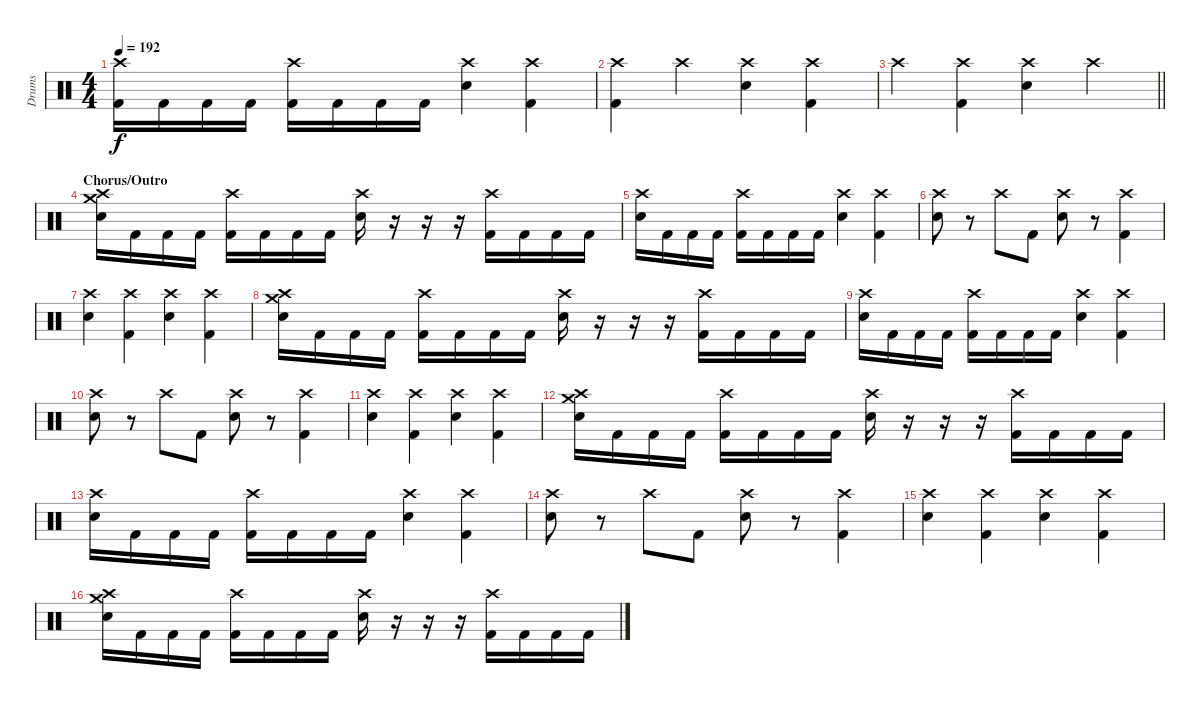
\track ("Drums" "Drums") {instrument percussion}
\staff {score}
\articulation defaults
\ts (4 4)
\tempo 192
\clef neutral
\ks c
("Crash high (hit)" "Kick (hit) 2").16{dy f} "Kick (hit) 2".16 "Kick (hit) 2".16 "Kick (hit) 2".16 ("Crash high (hit)" "Kick (hit) 2").16 "Kick (hit) 2".16 "Kick (hit) 2".16 "Kick (hit) 2".16 ("Crash high (hit)" "Snare (hit) 2").4 ("Crash high (hit)" "Kick (hit) 2").4 |
("Crash high (hit)" "Kick (hit) 2").4 "Crash high (hit)".4 ("Crash high (hit)" "Snare (hit) 2").4 ("Crash high (hit)" "Kick (hit) 2").4 |
\barLineRight lightlight "Crash high (hit)".4
("Crash high (hit)" "Kick (hit) 2").4 ("Crash high (hit)" "Snare (hit) 2").4 "Crash high (hit)".4 |
\section ("" "Chorus/Outro")
("Crash high (hit)" "Crash medium (hit)" "Snare (hit) 2").16 "Kick (hit) 2".16 "Kick (hit) 2".16 "Kick (hit) 2".16 ("Crash high (hit)" "Kick (hit) 2").16 "Kick (hit) 2".16 "Kick (hit) 2".16 "Kick (hit) 2".16 ("Crash high (hit)" "Snare (hit) 2").16 r.16 r.16 r.16 ("Crash high (hit)" "Kick (hit) 2").16 "Kick (hit) 2".16 "Kick (hit) 2".16 "Kick (hit) 2".16 |
("Crash high (hit)" "Snare (hit) 2").16 "Kick (hit) 2".16 "Kick (hit) 2".16 "Kick (hit) 2".16 ("Crash high (hit)" "Kick (hit) 2").16 "Kick (hit) 2".16 "Kick (hit) 2".16 "Kick (hit) 2".16 ("Crash high (hit)" "Snare (hit) 2").4 ("Crash high (hit)" "Kick (hit) 2").4 |
("Crash high (hit)" "Snare (hit) 2").8 r.8 "Crash high (hit)".8 "Kick (hit) 2".8 ("Crash high (hit)" "Snare (hit) 2").8 r.8 ("Crash high (hit)" "Kick (hit) 2").4 |
("Crash high (hit)" "Snare (hit) 2").4 ("Crash high (hit)" "Kick (hit) 2").4 ("Crash high (hit)" "Snare (hit) 2").4 ("Crash high (hit)" "Kick (hit) 2").4 |
("Crash high (hit)" "Crash medium (hit)" "Snare (hit) 2").16 "Kick (hit) 2".16 "Kick (hit) 2".16 "Kick (hit) 2".16 ("Crash high (hit)" "Kick (hit) 2").16 "Kick (hit) 2".16 "Kick (hit) 2".16 "Kick (hit) 2".16 ("Crash high (hit)" "Snare (hit) 2").16 r.16 r.16 r.16 ("Crash high (hit)" "Kick (hit) 2").16 "Kick (hit) 2".16 "Kick (hit) 2".16 "Kick (hit) 2".16 |
("Crash high (hit)" "Snare (hit) 2").16 "Kick (hit) 2".16 "Kick (hit) 2".16 "Kick (hit) 2".16 ("Crash high (hit)" "Kick (hit) 2").16 "Kick (hit) 2".16 "Kick (hit) 2".16 "Kick (hit) 2".16 ("Crash high (hit)" "Snare (hit) 2").4 ("Crash high (hit)" "Kick (hit) 2").4 |
("Crash high (hit)" "Snare (hit) 2").8 r.8 "Crash high (hit)".8 "Kick (hit) 2".8 ("Crash high (hit)" "Snare (hit) 2").8 r.8 ("Crash high (hit)" "Kick (hit) 2").4 |
("Crash high (hit)" "Snare (hit) 2").4 ("Crash high (hit)" "Kick (hit) 2").4 ("Crash high (hit)" "Snare (hit) 2").4 ("Crash high (hit)" "Kick (hit) 2").4 |
("Crash high (hit)" "Crash medium (hit)" "Snare (hit) 2").16 "Kick (hit) 2".16 "Kick (hit) 2".16 "Kick (hit) 2".16 ("Crash high (hit)" "Kick (hit) 2").16 "Kick (hit) 2".16 "Kick (hit) 2".16 "Kick (hit) 2".16 ("Crash high (hit)" "Snare (hit) 2").16 r.16 r.16 r.16 ("Crash high (hit)" "Kick (hit) 2").16 "Kick (hit) 2".16 "Kick (hit) 2".16 "Kick (hit) 2".16 |
("Crash high (hit)" "Snare (hit) 2").16 "Kick (hit) 2".16 "Kick (hit) 2".16 "Kick (hit) 2".16 ("Crash high (hit)" "Kick (hit) 2").16 "Kick (hit) 2".16 "Kick (hit) 2".16 "Kick (hit) 2".16 ("Crash high (hit)" "Snare (hit) 2").4 ("Crash high (hit)" "Kick (hit) 2").4 |
("Crash high (hit)" "Snare (hit) 2").8 r.8 "Crash high (hit)".8 "Kick (hit) 2".8 ("Crash high (hit)" "Snare (hit) 2").8 r.8 ("Crash high (hit)" "Kick (hit) 2").4 |
("Crash high (hit)" "Snare (hit) 2").4 ("Crash high (hit)" "Kick (hit) 2").4 ("Crash high (hit)" "Snare (hit) 2").4 ("Crash high (hit)" "Kick (hit) 2").4 |
("Crash high (hit)" "Crash medium (hit)" "Snare (hit) 2").16 "Kick (hit) 2".16 "Kick (hit) 2".16 "Kick (hit) 2".16 ("Crash high (hit)" "Kick (hit) 2").16 "Kick (hit) 2".16 "Kick (hit) 2".16 "Kick (hit) 2".16 ("Crash high (hit)" "Snare (hit) 2").16 r.16 r.16 r.16 ("Crash high (hit)" "Kick (hit) 2").16 "Kick (hit) 2".16 "Kick (hit) 2".16 "Kick (hit) 2".16
